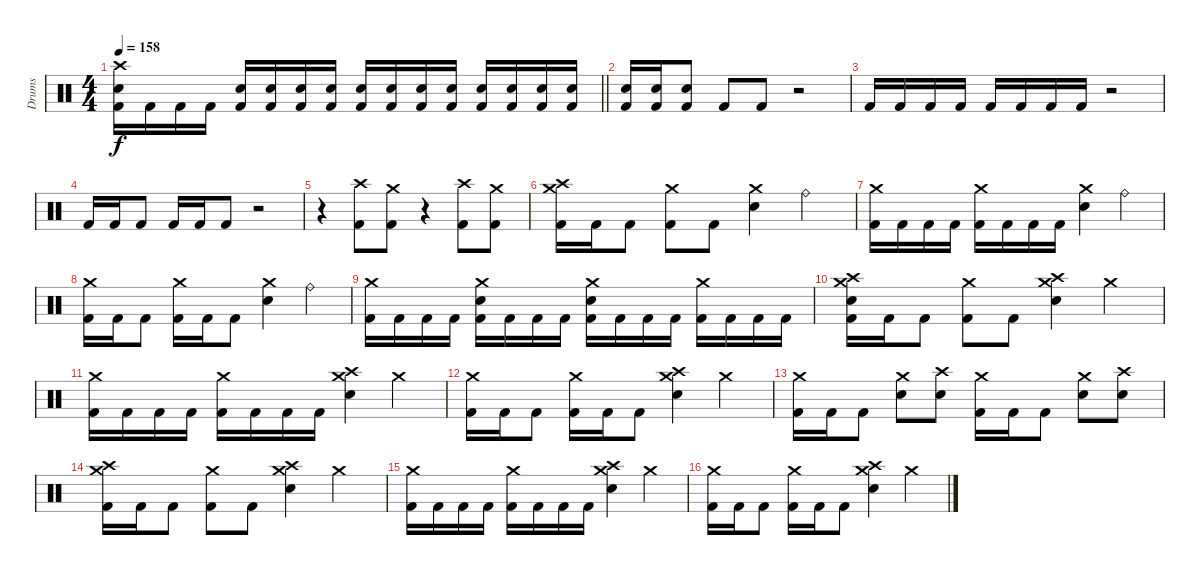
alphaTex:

\track ("Drums" "Drums") {instrument percussion}
\staff {score}
\articulation defaults
\ts (4 4)
\tempo 158
\clef neutral
\barLineRight lightlight
\ks c
("Crash high (hit)" "Snare (hit) 2" "Kick (hit) 2").16{dy f} "Kick (hit) 2".16 "Kick (hit) 2".16 "Kick (hit) 2".16 ("Snare (hit) 2" "Kick (hit) 2").16 ("Snare (hit) 2" "Kick (hit) 2").16 ("Snare (hit) 2" "Kick (hit) 2").16 ("Snare (hit) 2" "Kick (hit) 2").16 ("Snare (hit) 2" "Kick (hit) 2").16 ("Snare (hit) 2" "Kick (hit) 2").16 ("Snare (hit) 2" "Kick (hit) 2").16 ("Snare (hit) 2" "Kick (hit) 2").16 ("Snare (hit) 2" "Kick (hit) 2").16 ("Snare (hit) 2" "Kick (hit) 2").16 ("Snare (hit) 2" "Kick (hit) 2").16 ("Snare (hit) 2" "Kick (hit) 2").16 |
\section ("" "")
("Snare (hit) 2" "Kick (hit) 2").16 ("Snare (hit) 2" "Kick (hit) 2").16 ("Snare (hit) 2" "Kick (hit) 2").8 "Kick (hit) 2".8 "Kick (hit) 2".8 r.2 |
"Kick (hit) 2".16 "Kick (hit) 2".16 "Kick (hit) 2".16 "Kick (hit) 2".16 "Kick (hit) 2".16 "Kick (hit) 2".16 "Kick (hit) 2".16 "Kick (hit) 2".16 r.2 |
"Kick (hit) 2".16 "Kick (hit) 2".16 "Kick (hit) 2".8 "Kick (hit) 2".16 "Kick (hit) 2".16 "Kick (hit) 2".8 r.2 |
r.4 ("Crash high (hit)" "Kick (hit) 2").8 ("Crash medium (hit)" "Kick (hit) 2").8 r.4 ("Crash high (hit)" "Kick (hit) 2").8 ("Crash medium (hit)" "Kick (hit) 2").8 |
("Crash medium (hit)" "Crash high (hit)" "Kick (hit) 2").16 "Kick (hit) 2".16 "Kick (hit) 2".8 ("Crash medium (hit)" "Kick (hit) 2").8 "Kick (hit) 2".8 ("Crash medium (hit)" "Snare (hit) 2").4 "Ride (bell)".4 |
("Crash medium (hit)" "Kick (hit) 2").16 "Kick (hit) 2".16 "Kick (hit) 2".16 "Kick (hit) 2".16 ("Crash medium (hit)" "Kick (hit) 2").16 "Kick (hit) 2".16 "Kick (hit) 2".16 "Kick (hit) 2".16 ("Crash medium (hit)" "Snare (hit) 2").4 "Ride (bell)".4 |
("Crash medium (hit)" "Kick (hit) 2").16 "Kick (hit) 2".16 "Kick (hit) 2".8 ("Crash medium (hit)" "Kick (hit) 2").16 "Kick (hit) 2".16 "Kick (hit) 2".8 ("Crash medium (hit)" "Snare (hit) 2").4 "Ride (bell)".4 |
("Crash medium (hit)" "Kick (hit) 2").16 "Kick (hit) 2".16 "Kick (hit) 2".16 "Kick (hit) 2".16 ("Crash medium (hit)" "Snare (hit) 2" "Kick (hit) 2").16 "Kick (hit) 2".16 "Kick (hit) 2".16 "Kick (hit) 2".16 ("Crash medium (hit)" "Snare (hit) 2" "Kick (hit) 2").16 "Kick (hit) 2".16 "Kick (hit) 2".16 "Kick (hit) 2".16 ("Crash medium (hit)" "Kick (hit) 2").16 "Kick (hit) 2".16 "Kick (hit) 2".16 "Kick (hit) 2".16 |
("Crash medium (hit)" "Crash high (hit)" "Snare (hit) 2" "Kick (hit) 2").16 "Kick (hit) 2".16 "Kick (hit) 2".8 ("Crash medium (hit)" "Kick (hit) 2").8 "Kick (hit) 2".8 ("Crash medium (hit)" "Crash high (hit)" "Snare (hit) 2").4 "Crash medium (hit)".4 |
("Crash medium (hit)" "Kick (hit) 2").16 "Kick (hit) 2".16 "Kick (hit) 2".16 "Kick (hit) 2".16 ("Crash medium (hit)" "Kick (hit) 2").16 "Kick (hit) 2".16 "Kick (hit) 2".16 "Kick (hit) 2".16 ("Crash medium (hit)" "Crash high (hit)" "Snare (hit) 2").4 "Crash medium (hit)".4 |
("Crash medium (hit)" "Kick (hit) 2").16 "Kick (hit) 2".16 "Kick (hit) 2".8 ("Crash medium (hit)" "Kick (hit) 2").16 "Kick (hit) 2".16 "Kick (hit) 2".8 ("Crash medium (hit)" "Crash high (hit)" "Snare (hit) 2").4 "Crash medium (hit)".4 |
("Crash medium (hit)" "Kick (hit) 2").16 "Kick (hit) 2".16 "Kick (hit) 2".8 ("Crash medium (hit)" "Snare (hit) 2").8 ("Crash high (hit)" "Snare (hit) 2").8 ("Crash medium (hit)" "Kick (hit) 2").16 "Kick (hit) 2".16 "Kick (hit) 2".8 ("Crash medium (hit)" "Snare (hit) 2").8 ("Crash high (hit)" "Snare (hit) 2").8 |
("Crash medium (hit)" "Crash high (hit)" "Kick (hit) 2").16 "Kick (hit) 2".16 "Kick (hit) 2".8 ("Crash medium (hit)" "Kick (hit) 2").8 "Kick (hit) 2".8 ("Crash medium (hit)" "Crash high (hit)" "Snare (hit) 2").4 "Crash medium (hit)".4 |
("Crash medium (hit)" "Kick (hit) 2").16 "Kick (hit) 2".16 "Kick (hit) 2".16 "Kick (hit) 2".16 ("Crash medium (hit)" "Kick (hit) 2").16 "Kick (hit) 2".16 "Kick (hit) 2".16 "Kick (hit) 2".16 ("Crash medium (hit)" "Crash high (hit)" "Snare (hit) 2").4 "Crash medium (hit)".4 |
("Crash medium (hit)" "Kick (hit) 2").16 "Kick (hit) 2".16 "Kick (hit) 2".8 ("Crash medium (hit)" "Kick (hit) 2").16 "Kick (hit) 2".16 "Kick (hit) 2".8 ("Crash medium (hit)" "Crash high (hit)" "Snare (hit) 2").4 "Crash medium (hit)".4
